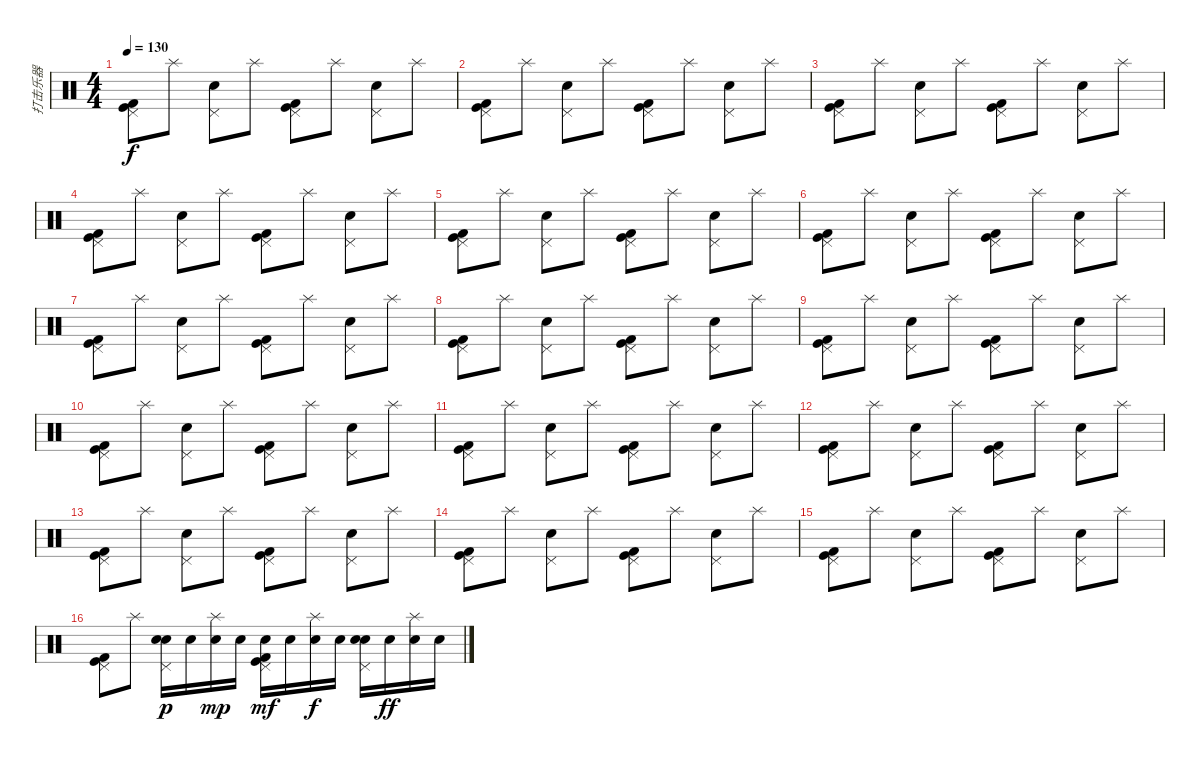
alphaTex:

\track ("打击乐器" "打击乐器") {instrument percussion}
\staff {score}
\articulation defaults
\ts (4 4)
\tempo 130
\clef neutral
\ks c
("Pedal Hi-Hat (hit)" "Kick (hit)" "Kick (hit) 2").8{dy f} "Splash (hit)".8 ("Pedal Hi-Hat (hit)" "Snare (hit) 2").8 "Splash (hit)".8 ("Pedal Hi-Hat (hit)" "Kick (hit)" "Kick (hit) 2").8 "Splash (hit)".8 ("Pedal Hi-Hat (hit)" "Snare (hit) 2").8 "Splash (hit)".8 |
("Pedal Hi-Hat (hit)" "Kick (hit)" "Kick (hit) 2").8 "Splash (hit)".8 ("Pedal Hi-Hat (hit)" "Snare (hit) 2").8 "Splash (hit)".8 ("Pedal Hi-Hat (hit)" "Kick (hit)" "Kick (hit) 2").8 "Splash (hit)".8 ("Pedal Hi-Hat (hit)" "Snare (hit) 2").8 "Splash (hit)".8 |
("Pedal Hi-Hat (hit)" "Kick (hit)" "Kick (hit) 2").8 "Splash (hit)".8 ("Pedal Hi-Hat (hit)" "Snare (hit) 2").8 "Splash (hit)".8 ("Pedal Hi-Hat (hit)" "Kick (hit)" "Kick (hit) 2").8 "Splash (hit)".8 ("Pedal Hi-Hat (hit)" "Snare (hit) 2").8 "Splash (hit)".8 |
("Pedal Hi-Hat (hit)" "Kick (hit)" "Kick (hit) 2").8 "Splash (hit)".8 ("Pedal Hi-Hat (hit)" "Snare (hit) 2").8 "Splash (hit)".8 ("Pedal Hi-Hat (hit)" "Kick (hit)" "Kick (hit) 2").8 "Splash (hit)".8 ("Pedal Hi-Hat (hit)" "Snare (hit) 2").8 "Splash (hit)".8 |
("Pedal Hi-Hat (hit)" "Kick (hit)" "Kick (hit) 2").8 "Splash (hit)".8 ("Pedal Hi-Hat (hit)" "Snare (hit) 2").8 "Splash (hit)".8 ("Pedal Hi-Hat (hit)" "Kick (hit)" "Kick (hit) 2").8 "Splash (hit)".8 ("Pedal Hi-Hat (hit)" "Snare (hit) 2").8 "Splash (hit)".8 |
("Pedal Hi-Hat (hit)" "Kick (hit)" "Kick (hit) 2").8 "Splash (hit)".8 ("Pedal Hi-Hat (hit)" "Snare (hit) 2").8 "Splash (hit)".8 ("Pedal Hi-Hat (hit)" "Kick (hit)" "Kick (hit) 2").8 "Splash (hit)".8 ("Pedal Hi-Hat (hit)" "Snare (hit) 2").8 "Splash (hit)".8 |
("Pedal Hi-Hat (hit)" "Kick (hit)" "Kick (hit) 2").8 "Splash (hit)".8 ("Pedal Hi-Hat (hit)" "Snare (hit) 2").8 "Splash (hit)".8 ("Pedal Hi-Hat (hit)" "Kick (hit)" "Kick (hit) 2").8 "Splash (hit)".8 ("Pedal Hi-Hat (hit)" "Snare (hit) 2").8 "Splash (hit)".8 |
("Pedal Hi-Hat (hit)" "Kick (hit)" "Kick (hit) 2").8 "Splash (hit)".8 ("Pedal Hi-Hat (hit)" "Snare (hit) 2").8 "Splash (hit)".8 ("Pedal Hi-Hat (hit)" "Kick (hit)" "Kick (hit) 2").8 "Splash (hit)".8 ("Pedal Hi-Hat (hit)" "Snare (hit) 2").8 "Splash (hit)".8 |
("Pedal Hi-Hat (hit)" "Kick (hit)" "Kick (hit) 2").8 "Splash (hit)".8 ("Pedal Hi-Hat (hit)" "Snare (hit) 2").8 "Splash (hit)".8 ("Pedal Hi-Hat (hit)" "Kick (hit)" "Kick (hit) 2").8 "Splash (hit)".8 ("Pedal Hi-Hat (hit)" "Snare (hit) 2").8 "Splash (hit)".8 |
("Pedal Hi-Hat (hit)" "Kick (hit)" "Kick (hit) 2").8 "Splash (hit)".8 ("Pedal Hi-Hat (hit)" "Snare (hit) 2").8 "Splash (hit)".8 ("Pedal Hi-Hat (hit)" "Kick (hit)" "Kick (hit) 2").8 "Splash (hit)".8 ("Pedal Hi-Hat (hit)" "Snare (hit) 2").8 "Splash (hit)".8 |
("Pedal Hi-Hat (hit)" "Kick (hit)" "Kick (hit) 2").8 "Splash (hit)".8 ("Pedal Hi-Hat (hit)" "Snare (hit) 2").8 "Splash (hit)".8 ("Pedal Hi-Hat (hit)" "Kick (hit)" "Kick (hit) 2").8 "Splash (hit)".8 ("Pedal Hi-Hat (hit)" "Snare (hit) 2").8 "Splash (hit)".8 |
("Pedal Hi-Hat (hit)" "Kick (hit)" "Kick (hit) 2").8 "Splash (hit)".8 ("Pedal Hi-Hat (hit)" "Snare (hit) 2").8 "Splash (hit)".8 ("Pedal Hi-Hat (hit)" "Kick (hit)" "Kick (hit) 2").8 "Splash (hit)".8 ("Pedal Hi-Hat (hit)" "Snare (hit) 2").8 "Splash (hit)".8 |
("Pedal Hi-Hat (hit)" "Kick (hit)" "Kick (hit) 2").8 "Splash (hit)".8 ("Pedal Hi-Hat (hit)" "Snare (hit) 2").8 "Splash (hit)".8 ("Pedal Hi-Hat (hit)" "Kick (hit)" "Kick (hit) 2").8 "Splash (hit)".8 ("Pedal Hi-Hat (hit)" "Snare (hit) 2").8 "Splash (hit)".8 |
("Pedal Hi-Hat (hit)" "Kick (hit)" "Kick (hit) 2").8 "Splash (hit)".8 ("Pedal Hi-Hat (hit)" "Snare (hit) 2").8 "Splash (hit)".8 ("Pedal Hi-Hat (hit)" "Kick (hit)" "Kick (hit) 2").8 "Splash (hit)".8 ("Pedal Hi-Hat (hit)" "Snare (hit) 2").8 "Splash (hit)".8 |
("Pedal Hi-Hat (hit)" "Kick (hit)" "Kick (hit) 2").8 "Splash (hit)".8 ("Pedal Hi-Hat (hit)" "Snare (hit) 2").8 "Splash (hit)".8 ("Pedal Hi-Hat (hit)" "Kick (hit)" "Kick (hit) 2").8 "Splash (hit)".8 ("Pedal Hi-Hat (hit)" "Snare (hit) 2").8 "Splash (hit)".8 |
("Pedal Hi-Hat (hit)" "Kick (hit)" "Kick (hit) 2").8 "Splash (hit)".8 ("Pedal Hi-Hat (hit)" "Electric Snare (hit)" "Snare (hit) 2").16{dy p} "Electric Snare (hit)".16 ("Splash (hit)" "Electric Snare (hit)").16{dy mp} "Electric Snare (hit)".16 ("Pedal Hi-Hat (hit)" "Electric Snare (hit)" "Kick (hit)" "Kick (hit) 2").16{dy mf} "Electric Snare (hit)".16 ("Splash (hit)" "Electric Snare (hit)").16{dy f} "Electric Snare (hit)".16 ("Pedal Hi-Hat (hit)" "Electric Snare (hit)" "Snare (hit) 2").16 "Electric Snare (hit)".16{dy ff} ("Splash (hit)" "Electric Snare (hit)").16 "Electric Snare (hit)".16
